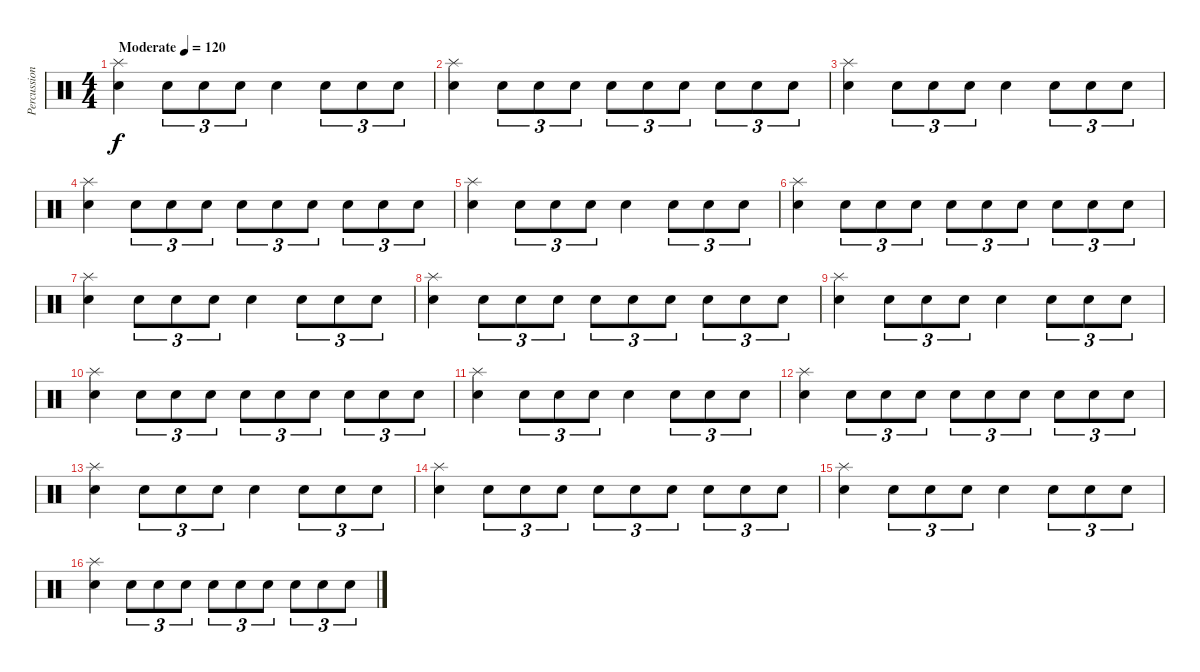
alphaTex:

\track ("Percussions" "Percussion") {instrument percussion}
\staff {score}
\articulation defaults
\ts (4 4)
\tempo (120 "Moderate")
\clef neutral
\ks c
("Splash (hit)" "Snare (hit) 2").4{dy f} "Snare (hit) 2".8{tu (3 2)} "Snare (hit) 2".8{tu (3 2)} "Snare (hit) 2".8{tu (3 2)} "Snare (hit) 2".4 "Snare (hit) 2".8{tu (3 2)} "Snare (hit) 2".8{tu (3 2)} "Snare (hit) 2".8{tu (3 2)} |
("Splash (hit)" "Snare (hit) 2").4 "Snare (hit) 2".8{tu (3 2)} "Snare (hit) 2".8{tu (3 2)} "Snare (hit) 2".8{tu (3 2)} "Snare (hit) 2".8{tu (3 2)} "Snare (hit) 2".8{tu (3 2)} "Snare (hit) 2".8{tu (3 2)} "Snare (hit) 2".8{tu (3 2)} "Snare (hit) 2".8{tu (3 2)} "Snare (hit) 2".8{tu (3 2)} |
("Splash (hit)" "Snare (hit) 2").4 "Snare (hit) 2".8{tu (3 2)} "Snare (hit) 2".8{tu (3 2)} "Snare (hit) 2".8{tu (3 2)} "Snare (hit) 2".4 "Snare (hit) 2".8{tu (3 2)} "Snare (hit) 2".8{tu (3 2)} "Snare (hit) 2".8{tu (3 2)} |
("Splash (hit)" "Snare (hit) 2").4 "Snare (hit) 2".8{tu (3 2)} "Snare (hit) 2".8{tu (3 2)} "Snare (hit) 2".8{tu (3 2)} "Snare (hit) 2".8{tu (3 2)} "Snare (hit) 2".8{tu (3 2)} "Snare (hit) 2".8{tu (3 2)} "Snare (hit) 2".8{tu (3 2)} "Snare (hit) 2".8{tu (3 2)} "Snare (hit) 2".8{tu (3 2)} |
("Splash (hit)" "Snare (hit) 2").4 "Snare (hit) 2".8{tu (3 2)} "Snare (hit) 2".8{tu (3 2)} "Snare (hit) 2".8{tu (3 2)} "Snare (hit) 2".4 "Snare (hit) 2".8{tu (3 2)} "Snare (hit) 2".8{tu (3 2)} "Snare (hit) 2".8{tu (3 2)} |
("Splash (hit)" "Snare (hit) 2").4 "Snare (hit) 2".8{tu (3 2)} "Snare (hit) 2".8{tu (3 2)} "Snare (hit) 2".8{tu (3 2)} "Snare (hit) 2".8{tu (3 2)} "Snare (hit) 2".8{tu (3 2)} "Snare (hit) 2".8{tu (3 2)} "Snare (hit) 2".8{tu (3 2)} "Snare (hit) 2".8{tu (3 2)} "Snare (hit) 2".8{tu (3 2)} |
("Splash (hit)" "Snare (hit) 2").4 "Snare (hit) 2".8{tu (3 2)} "Snare (hit) 2".8{tu (3 2)} "Snare (hit) 2".8{tu (3 2)} "Snare (hit) 2".4 "Snare (hit) 2".8{tu (3 2)} "Snare (hit) 2".8{tu (3 2)} "Snare (hit) 2".8{tu (3 2)} |
("Splash (hit)" "Snare (hit) 2").4 "Snare (hit) 2".8{tu (3 2)} "Snare (hit) 2".8{tu (3 2)} "Snare (hit) 2".8{tu (3 2)} "Snare (hit) 2".8{tu (3 2)} "Snare (hit) 2".8{tu (3 2)} "Snare (hit) 2".8{tu (3 2)} "Snare (hit) 2".8{tu (3 2)} "Snare (hit) 2".8{tu (3 2)} "Snare (hit) 2".8{tu (3 2)} |
("Splash (hit)" "Snare (hit) 2").4 "Snare (hit) 2".8{tu (3 2)} "Snare (hit) 2".8{tu (3 2)} "Snare (hit) 2".8{tu (3 2)} "Snare (hit) 2".4 "Snare (hit) 2".8{tu (3 2)} "Snare (hit) 2".8{tu (3 2)} "Snare (hit) 2".8{tu (3 2)} |
("Splash (hit)" "Snare (hit) 2").4 "Snare (hit) 2".8{tu (3 2)} "Snare (hit) 2".8{tu (3 2)} "Snare (hit) 2".8{tu (3 2)} "Snare (hit) 2".8{tu (3 2)} "Snare (hit) 2".8{tu (3 2)} "Snare (hit) 2".8{tu (3 2)} "Snare (hit) 2".8{tu (3 2)} "Snare (hit) 2".8{tu (3 2)} "Snare (hit) 2".8{tu (3 2)} |
("Splash (hit)" "Snare (hit) 2").4 "Snare (hit) 2".8{tu (3 2)} "Snare (hit) 2".8{tu (3 2)} "Snare (hit) 2".8{tu (3 2)} "Snare (hit) 2".4 "Snare (hit) 2".8{tu (3 2)} "Snare (hit) 2".8{tu (3 2)} "Snare (hit) 2".8{tu (3 2)} |
("Splash (hit)" "Snare (hit) 2").4 "Snare (hit) 2".8{tu (3 2)} "Snare (hit) 2".8{tu (3 2)} "Snare (hit) 2".8{tu (3 2)} "Snare (hit) 2".8{tu (3 2)} "Snare (hit) 2".8{tu (3 2)} "Snare (hit) 2".8{tu (3 2)} "Snare (hit) 2".8{tu (3 2)} "Snare (hit) 2".8{tu (3 2)} "Snare (hit) 2".8{tu (3 2)} |
("Splash (hit)" "Snare (hit) 2").4 "Snare (hit) 2".8{tu (3 2)} "Snare (hit) 2".8{tu (3 2)} "Snare (hit) 2".8{tu (3 2)} "Snare (hit) 2".4 "Snare (hit) 2".8{tu (3 2)} "Snare (hit) 2".8{tu (3 2)} "Snare (hit) 2".8{tu (3 2)} |
("Splash (hit)" "Snare (hit) 2").4 "Snare (hit) 2".8{tu (3 2)} "Snare (hit) 2".8{tu (3 2)} "Snare (hit) 2".8{tu (3 2)} "Snare (hit) 2".8{tu (3 2)} "Snare (hit) 2".8{tu (3 2)} "Snare (hit) 2".8{tu (3 2)} "Snare (hit) 2".8{tu (3 2)} "Snare (hit) 2".8{tu (3 2)} "Snare (hit) 2".8{tu (3 2)} |
("Splash (hit)" "Snare (hit) 2").4 "Snare (hit) 2".8{tu (3 2)} "Snare (hit) 2".8{tu (3 2)} "Snare (hit) 2".8{tu (3 2)} "Snare (hit) 2".4 "Snare (hit) 2".8{tu (3 2)} "Snare (hit) 2".8{tu (3 2)} "Snare (hit) 2".8{tu (3 2)} |
("Splash (hit)" "Snare (hit) 2").4 "Snare (hit) 2".8{tu (3 2)} "Snare (hit) 2".8{tu (3 2)} "Snare (hit) 2".8{tu (3 2)} "Snare (hit) 2".8{tu (3 2)} "Snare (hit) 2".8{tu (3 2)} "Snare (hit) 2".8{tu (3 2)} "Snare (hit) 2".8{tu (3 2)} "Snare (hit) 2".8{tu (3 2)} "Snare (hit) 2".8{tu (3 2)}
